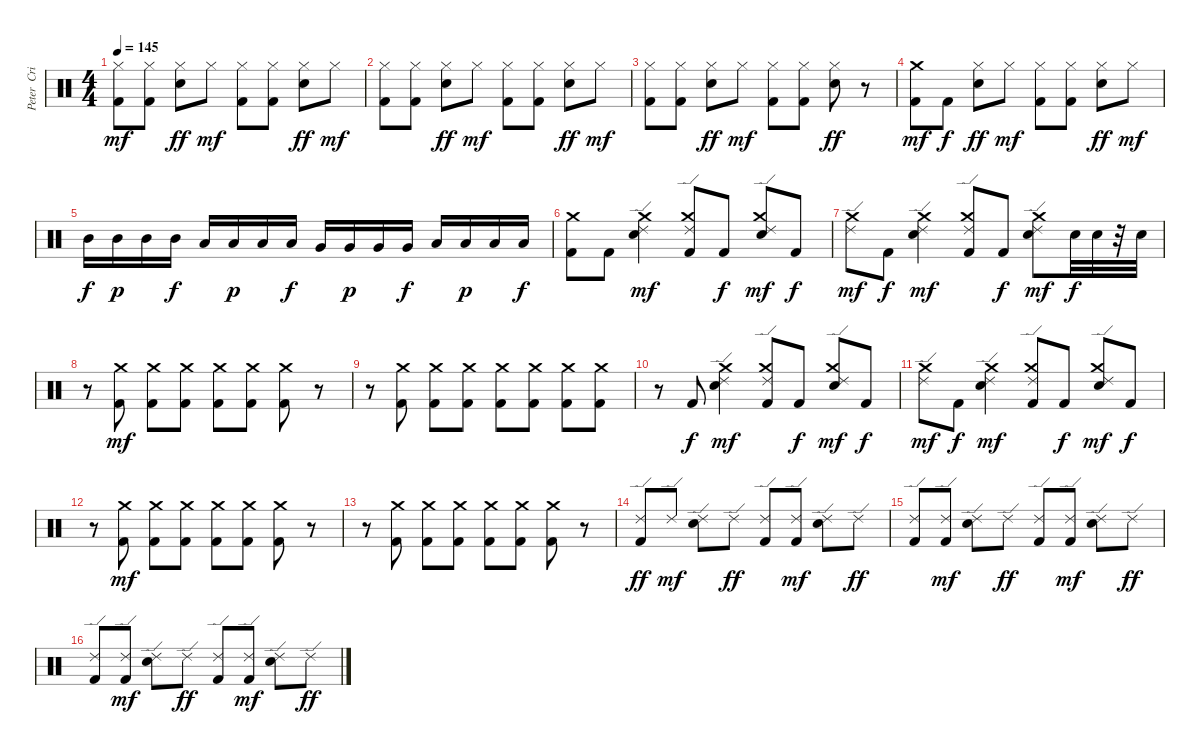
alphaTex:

\track ("Peter  Criss [Drums]" "Peter  Cri") {instrument percussion}
\staff {score}
\articulation defaults
\ts (4 4)
\tempo 145
\clef neutral
\ks c
("Hi-Hat (closed)" "Kick (hit) 2").8{dy mf} ("Hi-Hat (closed)" "Kick (hit) 2").8 ("Hi-Hat (closed)" "Electric Snare (hit)").8{dy ff} "Hi-Hat (closed)".8{dy mf} ("Hi-Hat (closed)" "Kick (hit) 2").8 ("Hi-Hat (closed)" "Kick (hit) 2").8 ("Hi-Hat (closed)" "Electric Snare (hit)").8{dy ff} "Hi-Hat (closed)".8{dy mf} |
("Hi-Hat (closed)" "Kick (hit) 2").8 ("Hi-Hat (closed)" "Kick (hit) 2").8 ("Hi-Hat (closed)" "Electric Snare (hit)").8{dy ff} "Hi-Hat (closed)".8{dy mf} ("Hi-Hat (closed)" "Kick (hit) 2").8 ("Hi-Hat (closed)" "Kick (hit) 2").8 ("Hi-Hat (closed)" "Electric Snare (hit)").8{dy ff} "Hi-Hat (closed)".8{dy mf} |
("Hi-Hat (closed)" "Kick (hit) 2").8 ("Hi-Hat (closed)" "Kick (hit) 2").8 ("Hi-Hat (closed)" "Electric Snare (hit)").8{dy ff} "Hi-Hat (closed)".8{dy mf} ("Hi-Hat (closed)" "Kick (hit) 2").8 ("Hi-Hat (closed)" "Kick (hit) 2").8 ("Hi-Hat (closed)" "Electric Snare (hit)").8{dy ff} r.8 |
("Crash medium (hit)" "Kick (hit) 2").8{dy mf} "Kick (hit) 2".8{dy f} ("Hi-Hat (closed)" "Electric Snare (hit)").8{dy ff} "Hi-Hat (closed)".8{dy mf} ("Hi-Hat (closed)" "Kick (hit) 2").8 ("Hi-Hat (closed)" "Kick (hit) 2").8 ("Hi-Hat (closed)" "Electric Snare (hit)").8{dy ff} "Hi-Hat (closed)".8{dy mf} |
"Mid Tom (hit)".16{dy f} "Mid Tom (hit)".16{dy p} "Mid Tom (hit)".16 "Mid Tom (hit)".16{dy f} "Low Tom (hit)".16 "Low Tom (hit)".16{dy p} "Low Tom (hit)".16 "Low Tom (hit)".16{dy f} "Very Low Tom (hit)".16 "Very Low Tom (hit)".16{dy p} "Very Low Tom (hit)".16 "Very Low Tom (hit)".16{dy f} "Low Floor Tom (hit)".16 "Low Floor Tom (hit)".16{dy p} "Low Floor Tom (hit)".16 "Low Floor Tom (hit)".16{dy f} |
("Crash medium (hit)" "Kick (hit) 2").8 "Kick (hit) 2".8 ("Ride (edge) 2" "Crash medium (hit)" "Electric Snare (hit)").4{dy mf} ("Ride (edge) 2" "Crash medium (hit)" "Kick (hit) 2").8 "Kick (hit) 2".8{dy f} ("Ride (edge) 2" "Crash medium (hit)" "Electric Snare (hit)").8{dy mf} "Kick (hit) 2".8{dy f} |
("Ride (edge) 2" "Crash medium (hit)").8{dy mf} "Kick (hit) 2".8{dy f} ("Ride (edge) 2" "Crash medium (hit)" "Electric Snare (hit)").4{dy mf} ("Ride (edge) 2" "Crash medium (hit)" "Kick (hit) 2").8 "Kick (hit) 2".8{dy f} ("Ride (edge) 2" "Crash medium (hit)" "Electric Snare (hit)").8{dy mf} "Electric Snare (hit)".32{dy f} "Electric Snare (hit)".32 r.32 "Electric Snare (hit)".32 |
r.8 ("Crash medium (hit)" "Kick (hit) 2").8{dy mf} ("Crash medium (hit)" "Kick (hit) 2").8 ("Crash medium (hit)" "Kick (hit) 2").8 ("Crash medium (hit)" "Kick (hit) 2").8 ("Crash medium (hit)" "Kick (hit) 2").8 ("Crash medium (hit)" "Kick (hit) 2").8 r.8 |
r.8 ("Crash medium (hit)" "Kick (hit) 2").8 ("Crash medium (hit)" "Kick (hit) 2").8 ("Crash medium (hit)" "Kick (hit) 2").8 ("Crash medium (hit)" "Kick (hit) 2").8 ("Crash medium (hit)" "Kick (hit) 2").8 ("Crash medium (hit)" "Kick (hit) 2").8 ("Crash medium (hit)" "Kick (hit) 2").8 |
r.8 "Kick (hit) 2".8{dy f} ("Ride (edge) 2" "Crash medium (hit)" "Electric Snare (hit)").4{dy mf} ("Ride (edge) 2" "Crash medium (hit)" "Kick (hit) 2").8 "Kick (hit) 2".8{dy f} ("Ride (edge) 2" "Crash medium (hit)" "Electric Snare (hit)").8{dy mf} "Kick (hit) 2".8{dy f} |
("Ride (edge) 2" "Crash medium (hit)").8{dy mf} "Kick (hit) 2".8{dy f} ("Ride (edge) 2" "Crash medium (hit)" "Electric Snare (hit)").4{dy mf} ("Ride (edge) 2" "Crash medium (hit)" "Kick (hit) 2").8 "Kick (hit) 2".8{dy f} ("Ride (edge) 2" "Crash medium (hit)" "Electric Snare (hit)").8{dy mf} "Kick (hit) 2".8{dy f} |
r.8 ("Crash medium (hit)" "Kick (hit) 2").8{dy mf} ("Crash medium (hit)" "Kick (hit) 2").8 ("Crash medium (hit)" "Kick (hit) 2").8 ("Crash medium (hit)" "Kick (hit) 2").8 ("Crash medium (hit)" "Kick (hit) 2").8 ("Crash medium (hit)" "Kick (hit) 2").8 r.8 |
r.8 ("Crash medium (hit)" "Kick (hit) 2").8 ("Crash medium (hit)" "Kick (hit) 2").8 ("Crash medium (hit)" "Kick (hit) 2").8 ("Crash medium (hit)" "Kick (hit) 2").8 ("Crash medium (hit)" "Kick (hit) 2").8 ("Crash medium (hit)" "Kick (hit) 2").8 r.8 |
("Ride (edge) 2" "Kick (hit) 2").8{dy ff} "Ride (edge) 2".8{dy mf} ("Ride (edge) 2" "Electric Snare (hit)").8 "Ride (edge) 2".8{dy ff} ("Ride (edge) 2" "Kick (hit) 2").8 ("Ride (edge) 2" "Kick (hit) 2").8{dy mf} ("Ride (edge) 2" "Electric Snare (hit)").8 "Ride (edge) 2".8{dy ff} |
("Ride (edge) 2" "Kick (hit) 2").8 ("Ride (edge) 2" "Kick (hit) 2").8{dy mf} ("Ride (edge) 2" "Electric Snare (hit)").8 "Ride (edge) 2".8{dy ff} ("Ride (edge) 2" "Kick (hit) 2").8 ("Ride (edge) 2" "Kick (hit) 2").8{dy mf} ("Ride (edge) 2" "Electric Snare (hit)").8 "Ride (edge) 2".8{dy ff} |
("Ride (edge) 2" "Kick (hit) 2").8 ("Ride (edge) 2" "Kick (hit) 2").8{dy mf} ("Ride (edge) 2" "Electric Snare (hit)").8 "Ride (edge) 2".8{dy ff} ("Ride (edge) 2" "Kick (hit) 2").8 ("Ride (edge) 2" "Kick (hit) 2").8{dy mf} ("Ride (edge) 2" "Electric Snare (hit)").8 "Ride (edge) 2".8{dy ff}
